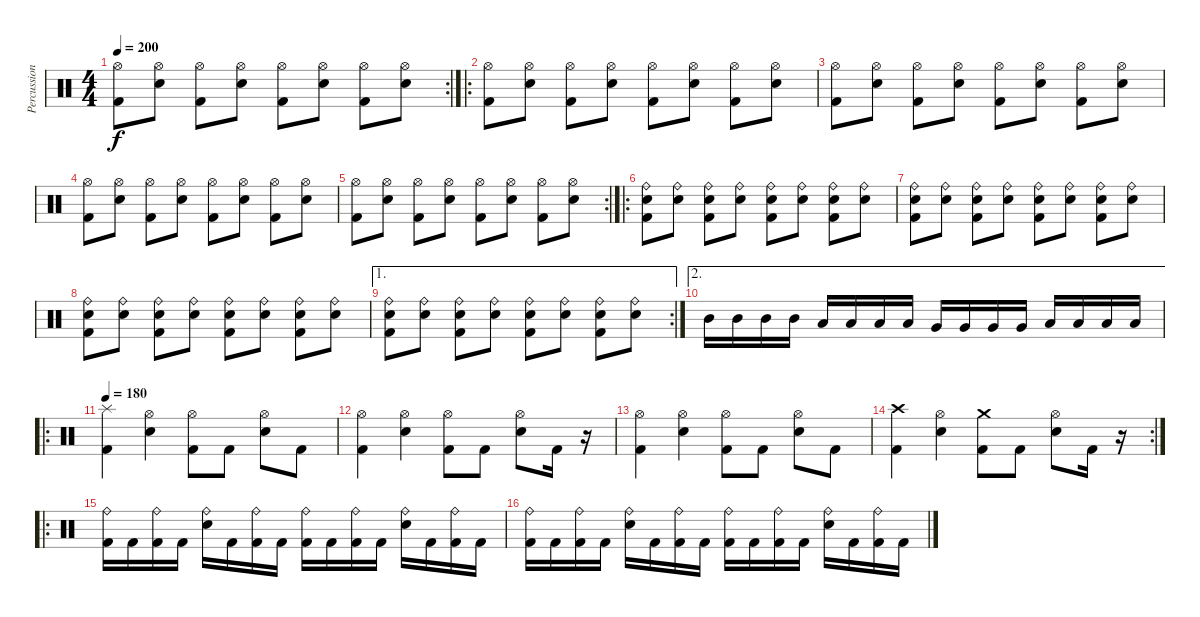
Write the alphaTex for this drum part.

\track ("Percussion" "Percussion") {instrument percussion}
\staff {score}
\articulation defaults
\rc 2
\ts (4 4)
\tempo 200
\clef neutral
\ks c
("Kick (hit) 2" "Hi-Hat (open)").8{dy f} ("Snare (hit) 2" "Hi-Hat (open)").8 ("Kick (hit) 2" "Hi-Hat (open)").8 ("Snare (hit) 2" "Hi-Hat (open)").8 ("Kick (hit) 2" "Hi-Hat (open)").8 ("Snare (hit) 2" "Hi-Hat (open)").8 ("Kick (hit) 2" "Hi-Hat (open)").8 ("Snare (hit) 2" "Hi-Hat (open)").8 |
\ro
("Kick (hit) 2" "Hi-Hat (open)").8 ("Snare (hit) 2" "Hi-Hat (open)").8 ("Kick (hit) 2" "Hi-Hat (open)").8 ("Snare (hit) 2" "Hi-Hat (open)").8 ("Kick (hit) 2" "Hi-Hat (open)").8 ("Snare (hit) 2" "Hi-Hat (open)").8 ("Kick (hit) 2" "Hi-Hat (open)").8 ("Snare (hit) 2" "Hi-Hat (open)").8 |
("Kick (hit) 2" "Hi-Hat (open)").8 ("Snare (hit) 2" "Hi-Hat (open)").8 ("Kick (hit) 2" "Hi-Hat (open)").8 ("Snare (hit) 2" "Hi-Hat (open)").8 ("Kick (hit) 2" "Hi-Hat (open)").8 ("Snare (hit) 2" "Hi-Hat (open)").8 ("Kick (hit) 2" "Hi-Hat (open)").8 ("Snare (hit) 2" "Hi-Hat (open)").8 |
("Kick (hit) 2" "Hi-Hat (open)").8 ("Snare (hit) 2" "Hi-Hat (open)").8 ("Kick (hit) 2" "Hi-Hat (open)").8 ("Snare (hit) 2" "Hi-Hat (open)").8 ("Kick (hit) 2" "Hi-Hat (open)").8 ("Snare (hit) 2" "Hi-Hat (open)").8 ("Kick (hit) 2" "Hi-Hat (open)").8 ("Snare (hit) 2" "Hi-Hat (open)").8 |
\rc 2
("Kick (hit) 2" "Hi-Hat (open)").8 ("Snare (hit) 2" "Hi-Hat (open)").8 ("Kick (hit) 2" "Hi-Hat (open)").8 ("Snare (hit) 2" "Hi-Hat (open)").8 ("Kick (hit) 2" "Hi-Hat (open)").8 ("Snare (hit) 2" "Hi-Hat (open)").8 ("Kick (hit) 2" "Hi-Hat (open)").8 ("Snare (hit) 2" "Hi-Hat (open)").8 |
\ro
("Kick (hit) 2" "Snare (hit) 2" "Ride (bell)").8 ("Snare (hit) 2" "Ride (bell)").8 ("Kick (hit) 2" "Snare (hit) 2" "Ride (bell)").8 ("Snare (hit) 2" "Ride (bell)").8 ("Kick (hit) 2" "Snare (hit) 2" "Ride (bell)").8 ("Snare (hit) 2" "Ride (bell)").8 ("Kick (hit) 2" "Snare (hit) 2" "Ride (bell)").8 ("Snare (hit) 2" "Ride (bell)").8 |
("Kick (hit) 2" "Snare (hit) 2" "Ride (bell)").8 ("Snare (hit) 2" "Ride (bell)").8 ("Kick (hit) 2" "Snare (hit) 2" "Ride (bell)").8 ("Snare (hit) 2" "Ride (bell)").8 ("Kick (hit) 2" "Snare (hit) 2" "Ride (bell)").8 ("Snare (hit) 2" "Ride (bell)").8 ("Kick (hit) 2" "Snare (hit) 2" "Ride (bell)").8 ("Snare (hit) 2" "Ride (bell)").8 |
("Kick (hit) 2" "Snare (hit) 2" "Ride (bell)").8 ("Snare (hit) 2" "Ride (bell)").8 ("Kick (hit) 2" "Snare (hit) 2" "Ride (bell)").8 ("Snare (hit) 2" "Ride (bell)").8 ("Kick (hit) 2" "Snare (hit) 2" "Ride (bell)").8 ("Snare (hit) 2" "Ride (bell)").8 ("Kick (hit) 2" "Snare (hit) 2" "Ride (bell)").8 ("Snare (hit) 2" "Ride (bell)").8 |
\ae 1
\rc 2
("Kick (hit) 2" "Snare (hit) 2" "Ride (bell)").8 ("Snare (hit) 2" "Ride (bell)").8 ("Kick (hit) 2" "Snare (hit) 2" "Ride (bell)").8 ("Snare (hit) 2" "Ride (bell)").8 ("Kick (hit) 2" "Snare (hit) 2" "Ride (bell)").8 ("Snare (hit) 2" "Ride (bell)").8 ("Kick (hit) 2" "Snare (hit) 2" "Ride (bell)").8 ("Snare (hit) 2" "Ride (bell)").8 |
\ae 2 "Mid Tom (hit)".16 "Mid Tom (hit)".16 "Mid Tom (hit)".16 "Mid Tom (hit)".16 "Low Tom (hit)".16 "Low Tom (hit)".16 "Low Tom (hit)".16 "Low Tom (hit)".16 "Very Low Tom (hit)".16 "Very Low Tom (hit)".16 "Very Low Tom (hit)".16 "Very Low Tom (hit)".16 "Low Floor Tom (hit)".16 "Low Floor Tom (hit)".16 "Low Floor Tom (hit)".16 "Low Floor Tom (hit)".16
|
\ro
\tempo 180
("Kick (hit) 2" "Splash (hit)").4 ("Snare (hit) 2" "Hi-Hat (open)").4 ("Kick (hit) 2" "Hi-Hat (open)").8 "Kick (hit) 2".8 ("Snare (hit) 2" "Hi-Hat (open)").8 "Kick (hit) 2".8 |
("Kick (hit) 2" "Hi-Hat (open)").4 ("Snare (hit) 2" "Hi-Hat (open)").4 ("Kick (hit) 2" "Hi-Hat (open)").8 "Kick (hit) 2".8 ("Snare (hit) 2" "Hi-Hat (open)").8 "Kick (hit) 2".16 r.16 |
("Kick (hit) 2" "Hi-Hat (open)").4 ("Snare (hit) 2" "Hi-Hat (open)").4 ("Kick (hit) 2" "Hi-Hat (open)").8 "Kick (hit) 2".8 ("Snare (hit) 2" "Hi-Hat (open)").8 "Kick (hit) 2".8 |
\rc 2
("Kick (hit) 2" "Crash high (hit)").4 ("Snare (hit) 2" "Hi-Hat (open)").4 ("Kick (hit) 2" "Crash medium (hit)").8 "Kick (hit) 2".8 ("Snare (hit) 2" "Hi-Hat (open)").8 "Kick (hit) 2".16 r.16 |
\ro
("Kick (hit) 2" "Ride (bell)").16 "Kick (hit) 2".16 ("Kick (hit) 2" "Ride (bell)").16 "Kick (hit) 2".16 ("Snare (hit) 2" "Ride (bell)").16 "Kick (hit) 2".16 ("Kick (hit) 2" "Ride (bell)").16 "Kick (hit) 2".16 ("Kick (hit) 2" "Ride (bell)").16 "Kick (hit) 2".16 ("Kick (hit) 2" "Ride (bell)").16 "Kick (hit) 2".16 ("Snare (hit) 2" "Ride (bell)").16 "Kick (hit) 2".16 ("Kick (hit) 2" "Ride (bell)").16 "Kick (hit) 2".16 |
("Kick (hit) 2" "Ride (bell)").16 "Kick (hit) 2".16 ("Kick (hit) 2" "Ride (bell)").16 "Kick (hit) 2".16 ("Snare (hit) 2" "Ride (bell)").16 "Kick (hit) 2".16 ("Kick (hit) 2" "Ride (bell)").16 "Kick (hit) 2".16 ("Kick (hit) 2" "Ride (bell)").16 "Kick (hit) 2".16 ("Kick (hit) 2" "Ride (bell)").16 "Kick (hit) 2".16 ("Snare (hit) 2" "Ride (bell)").16 "Kick (hit) 2".16 ("Kick (hit) 2" "Ride (bell)").16 "Kick (hit) 2".16
